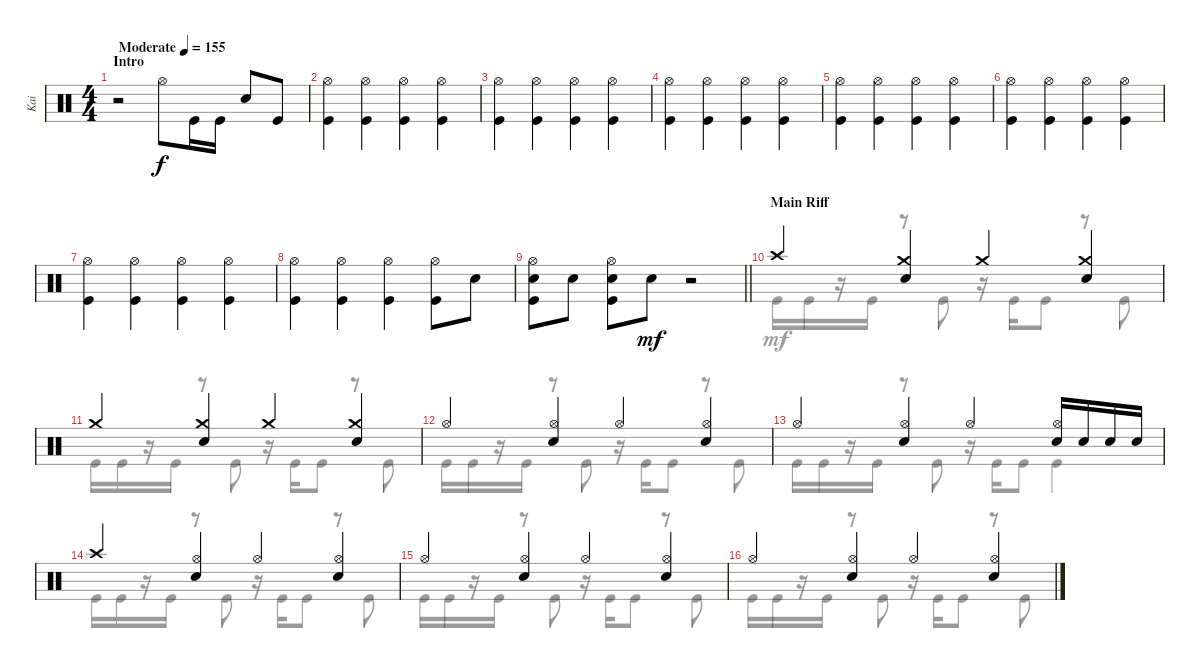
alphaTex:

\track ("Kai" "Kai") {instrument percussion}
\staff {score}
\articulation defaults
\voice
\ts (4 4)
\section ("" "Intro")
\tempo (155 "Moderate")
\clef neutral
\ks c
r.2{dy f} "Hi-Hat (open)".8 "Kick (hit)".16 "Kick (hit)".16 "Electric Snare (hit)".8 "Kick (hit)".8 |
("Hi-Hat (open)" "Kick (hit)").4 ("Hi-Hat (open)" "Kick (hit)").4 ("Hi-Hat (open)" "Kick (hit)").4 ("Hi-Hat (open)" "Kick (hit)").4 |
("Hi-Hat (open)" "Kick (hit)").4 ("Hi-Hat (open)" "Kick (hit)").4 ("Hi-Hat (open)" "Kick (hit)").4 ("Hi-Hat (open)" "Kick (hit)").4 |
("Hi-Hat (open)" "Kick (hit)").4 ("Hi-Hat (open)" "Kick (hit)").4 ("Hi-Hat (open)" "Kick (hit)").4 ("Hi-Hat (open)" "Kick (hit)").4 |
("Hi-Hat (open)" "Kick (hit)").4 ("Hi-Hat (open)" "Kick (hit)").4 ("Hi-Hat (open)" "Kick (hit)").4 ("Hi-Hat (open)" "Kick (hit)").4 |
("Hi-Hat (open)" "Kick (hit)").4 ("Hi-Hat (open)" "Kick (hit)").4 ("Hi-Hat (open)" "Kick (hit)").4 ("Hi-Hat (open)" "Kick (hit)").4 |
("Hi-Hat (open)" "Kick (hit)").4 ("Hi-Hat (open)" "Kick (hit)").4 ("Hi-Hat (open)" "Kick (hit)").4 ("Hi-Hat (open)" "Kick (hit)").4 |
("Hi-Hat (open)" "Kick (hit)").4 ("Hi-Hat (open)" "Kick (hit)").4 ("Hi-Hat (open)" "Kick (hit)").4 ("Hi-Hat (open)" "Kick (hit)").8 "Electric Snare (hit)".8 |
\barLineRight lightlight
("Hi-Hat (open)" "Electric Snare (hit)" "Kick (hit)").8 "Electric Snare (hit)".8 ("Hi-Hat (open)" "Electric Snare (hit)" "Kick (hit)").8 "Electric Snare (hit)".8{dy mf} r.2 |
\section ("" "Main Riff")
"Crash high (hit)".4 ("Crash medium (hit)" "Electric Snare (hit)").4 "Crash medium (hit)".4 ("Crash medium (hit)" "Electric Snare (hit)").4 |
"Crash medium (hit)".4 ("Crash medium (hit)" "Electric Snare (hit)").4 "Crash medium (hit)".4 ("Crash medium (hit)" "Electric Snare (hit)").4 |
"Hi-Hat (open)".4 ("Hi-Hat (open)" "Electric Snare (hit)").4 "Hi-Hat (open)".4 ("Hi-Hat (open)" "Electric Snare (hit)").4 |
"Hi-Hat (open)".4 ("Hi-Hat (open)" "Electric Snare (hit)").4 "Hi-Hat (open)".4 ("Hi-Hat (open)" "Electric Snare (hit)").16 "Electric Snare (hit)".16 "Electric Snare (hit)".16 "Electric Snare (hit)".16 |
"Crash high (hit)".4 ("Hi-Hat (open)" "Electric Snare (hit)").4 "Hi-Hat (open)".4 ("Hi-Hat (open)" "Electric Snare (hit)").4 |
"Hi-Hat (open)".4 ("Hi-Hat (open)" "Electric Snare (hit)").4 "Hi-Hat (open)".4 ("Hi-Hat (open)" "Electric Snare (hit)").4 |
"Hi-Hat (open)".4 ("Hi-Hat (open)" "Electric Snare (hit)").4 "Hi-Hat (open)".4 ("Hi-Hat (open)" "Electric Snare (hit)").4
\voice
\clef neutral
\ottava regular
\simile none
\ks c
|
|
|
|
|
|
|
|
\barLineRight lightlight
|
"Kick (hit)".16 "Kick (hit)".16 r.16 "Kick (hit)".16 r.8 "Kick (hit)".8 r.16 "Kick (hit)".16 "Kick (hit)".8 r.8 "Kick (hit)".8 |
"Kick (hit)".16 "Kick (hit)".16 r.16 "Kick (hit)".16 r.8 "Kick (hit)".8 r.16 "Kick (hit)".16 "Kick (hit)".8 r.8 "Kick (hit)".8 |
"Kick (hit)".16 "Kick (hit)".16 r.16 "Kick (hit)".16 r.8 "Kick (hit)".8 r.16 "Kick (hit)".16 "Kick (hit)".8 r.8 "Kick (hit)".8 |
"Kick (hit)".16 "Kick (hit)".16 r.16 "Kick (hit)".16 r.8 "Kick (hit)".8 r.16 "Kick (hit)".16 "Kick (hit)".8 "Kick (hit)".4 |
"Kick (hit)".16 "Kick (hit)".16 r.16 "Kick (hit)".16 r.8 "Kick (hit)".8 r.16 "Kick (hit)".16 "Kick (hit)".8 r.8 "Kick (hit)".8 |
"Kick (hit)".16 "Kick (hit)".16 r.16 "Kick (hit)".16 r.8 "Kick (hit)".8 r.16 "Kick (hit)".16 "Kick (hit)".8 r.8 "Kick (hit)".8 |
"Kick (hit)".16 "Kick (hit)".16 r.16 "Kick (hit)".16 r.8 "Kick (hit)".8 r.16 "Kick (hit)".16 "Kick (hit)".8 r.8 "Kick (hit)".8
